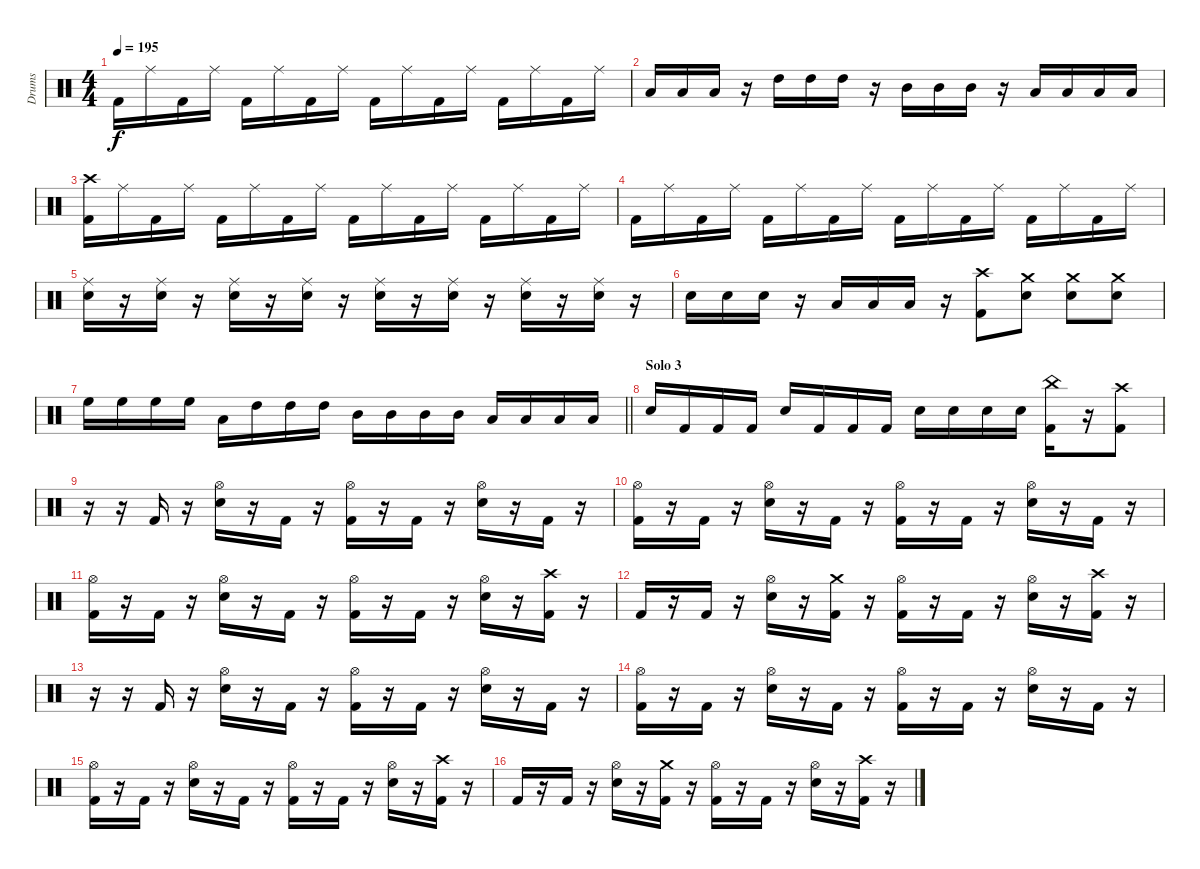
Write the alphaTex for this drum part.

\track ("Drums" "Drums") {instrument percussion}
\staff {score}
\articulation defaults
\ts (4 4)
\tempo 195
\clef neutral
\ks c "Kick (hit) 2".16{dy f} "Ride (middle)".16 "Kick (hit) 2".16 "Ride (middle)".16 "Kick (hit) 2".16 "Ride (middle)".16 "Kick (hit) 2".16 "Ride (middle)".16 "Kick (hit) 2".16 "Ride (middle)".16 "Kick (hit) 2".16 "Ride (middle)".16 "Kick (hit) 2".16 "Ride (middle)".16 "Kick (hit) 2".16 "Ride (middle)".16
|
"Low Floor Tom (hit)".16 "Low Floor Tom (hit)".16 "Low Floor Tom (hit)".16 r.16 "High Tom (hit)".16 "High Tom (hit)".16 "High Tom (hit)".16 r.16 "Mid Tom (hit)".16 "Mid Tom (hit)".16 "Mid Tom (hit)".16 r.16 "Low Tom (hit)".16 "Low Tom (hit)".16 "Low Tom (hit)".16 "Low Tom (hit)".16 |
("Crash high (hit)" "Kick (hit) 2").16 "Ride (middle)".16 "Kick (hit) 2".16 "Ride (middle)".16 "Kick (hit) 2".16 "Ride (middle)".16 "Kick (hit) 2".16 "Ride (middle)".16 "Kick (hit) 2".16 "Ride (middle)".16 "Kick (hit) 2".16 "Ride (middle)".16 "Kick (hit) 2".16 "Ride (middle)".16 "Kick (hit) 2".16 "Ride (middle)".16 |
"Kick (hit) 2".16 "Ride (middle)".16 "Kick (hit) 2".16 "Ride (middle)".16 "Kick (hit) 2".16 "Ride (middle)".16 "Kick (hit) 2".16 "Ride (middle)".16 "Kick (hit) 2".16 "Ride (middle)".16 "Kick (hit) 2".16 "Ride (middle)".16 "Kick (hit) 2".16 "Ride (middle)".16 "Kick (hit) 2".16 "Ride (middle)".16 |
("Ride (middle)" "Electric Snare (hit)").16 r.16 ("Ride (middle)" "Electric Snare (hit)").16 r.16 ("Ride (middle)" "Electric Snare (hit)").16 r.16 ("Ride (middle)" "Electric Snare (hit)").16 r.16 ("Ride (middle)" "Electric Snare (hit)").16 r.16 ("Ride (middle)" "Electric Snare (hit)").16 r.16 ("Ride (middle)" "Electric Snare (hit)").16 r.16 ("Ride (middle)" "Electric Snare (hit)").16 r.16 |
"Electric Snare (hit)".16 "Electric Snare (hit)".16 "Electric Snare (hit)".16 r.16 "Low Tom (hit)".16 "Low Tom (hit)".16 "Low Tom (hit)".16 r.16 ("Crash high (hit)" "Kick (hit) 2").8 ("Crash medium (hit)" "Electric Snare (hit)").8 ("Crash medium (hit)" "Electric Snare (hit)").8 ("Crash medium (hit)" "Electric Snare (hit)").8 |
\barLineRight lightlight "High Floor Tom (hit)".16 "High Floor Tom (hit)".16 "High Floor Tom (hit)".16 "High Floor Tom (hit)".16 "Low Floor Tom (hit)".16 "High Tom (hit)".16 "High Tom (hit)".16 "High Tom (hit)".16 "Mid Tom (hit)".16 "Mid Tom (hit)".16 "Mid Tom (hit)".16 "Mid Tom (hit)".16 "Low Tom (hit)".16 "Low Tom (hit)".16 "Low Tom (hit)".16 "Low Tom (hit)".16
|
\section ("" "Solo 3")
"Electric Snare (hit)".16 "Kick (hit) 2".16 "Kick (hit) 2".16 "Kick (hit) 2".16 "Electric Snare (hit)".16 "Kick (hit) 2".16 "Kick (hit) 2".16 "Kick (hit) 2".16 "Electric Snare (hit)".16 "Electric Snare (hit)".16 "Electric Snare (hit)".16 "Electric Snare (hit)".16 ("China (hit)" "Kick (hit) 2").16 r.16 ("Crash high (hit)" "Kick (hit) 2").8 |
r.16 r.16 "Kick (hit) 2".16 r.16 ("Electric Snare (hit)" "Hi-Hat (open)").16 r.16 "Kick (hit) 2".16 r.16 ("Hi-Hat (open)" "Kick (hit) 2").16 r.16 "Kick (hit) 2".16 r.16 ("Hi-Hat (open)" "Electric Snare (hit)").16 r.16 "Kick (hit) 2".16 r.16 |
("Hi-Hat (open)" "Kick (hit) 2").16 r.16 "Kick (hit) 2".16 r.16 ("Electric Snare (hit)" "Hi-Hat (open)").16 r.16 "Kick (hit) 2".16 r.16 ("Hi-Hat (open)" "Kick (hit) 2").16 r.16 "Kick (hit) 2".16 r.16 ("Hi-Hat (open)" "Electric Snare (hit)").16 r.16 "Kick (hit) 2".16 r.16 |
("Hi-Hat (open)" "Kick (hit) 2").16 r.16 "Kick (hit) 2".16 r.16 ("Electric Snare (hit)" "Hi-Hat (open)").16 r.16 "Kick (hit) 2".16 r.16 ("Hi-Hat (open)" "Kick (hit) 2").16 r.16 "Kick (hit) 2".16 r.16 ("Hi-Hat (open)" "Electric Snare (hit)").16 r.16 ("Crash high (hit)" "Kick (hit) 2").16 r.16 |
"Kick (hit) 2".16 r.16 "Kick (hit) 2".16 r.16 ("Electric Snare (hit)" "Hi-Hat (open)").16 r.16 ("Crash medium (hit)" "Kick (hit) 2").16 r.16 ("Hi-Hat (open)" "Kick (hit) 2").16 r.16 "Kick (hit) 2".16 r.16 ("Hi-Hat (open)" "Electric Snare (hit)").16 r.16 ("Crash high (hit)" "Kick (hit) 2").16 r.16 |
r.16 r.16 "Kick (hit) 2".16 r.16 ("Electric Snare (hit)" "Hi-Hat (open)").16 r.16 "Kick (hit) 2".16 r.16 ("Hi-Hat (open)" "Kick (hit) 2").16 r.16 "Kick (hit) 2".16 r.16 ("Hi-Hat (open)" "Electric Snare (hit)").16 r.16 "Kick (hit) 2".16 r.16 |
("Hi-Hat (open)" "Kick (hit) 2").16 r.16 "Kick (hit) 2".16 r.16 ("Electric Snare (hit)" "Hi-Hat (open)").16 r.16 "Kick (hit) 2".16 r.16 ("Hi-Hat (open)" "Kick (hit) 2").16 r.16 "Kick (hit) 2".16 r.16 ("Hi-Hat (open)" "Electric Snare (hit)").16 r.16 "Kick (hit) 2".16 r.16 |
("Hi-Hat (open)" "Kick (hit) 2").16 r.16 "Kick (hit) 2".16 r.16 ("Electric Snare (hit)" "Hi-Hat (open)").16 r.16 "Kick (hit) 2".16 r.16 ("Hi-Hat (open)" "Kick (hit) 2").16 r.16 "Kick (hit) 2".16 r.16 ("Hi-Hat (open)" "Electric Snare (hit)").16 r.16 ("Crash high (hit)" "Kick (hit) 2").16 r.16 |
"Kick (hit) 2".16 r.16 "Kick (hit) 2".16 r.16 ("Electric Snare (hit)" "Hi-Hat (open)").16 r.16 ("Crash medium (hit)" "Kick (hit) 2").16 r.16 ("Hi-Hat (open)" "Kick (hit) 2").16 r.16 "Kick (hit) 2".16 r.16 ("Hi-Hat (open)" "Electric Snare (hit)").16 r.16 ("Crash high (hit)" "Kick (hit) 2").16 r.16
